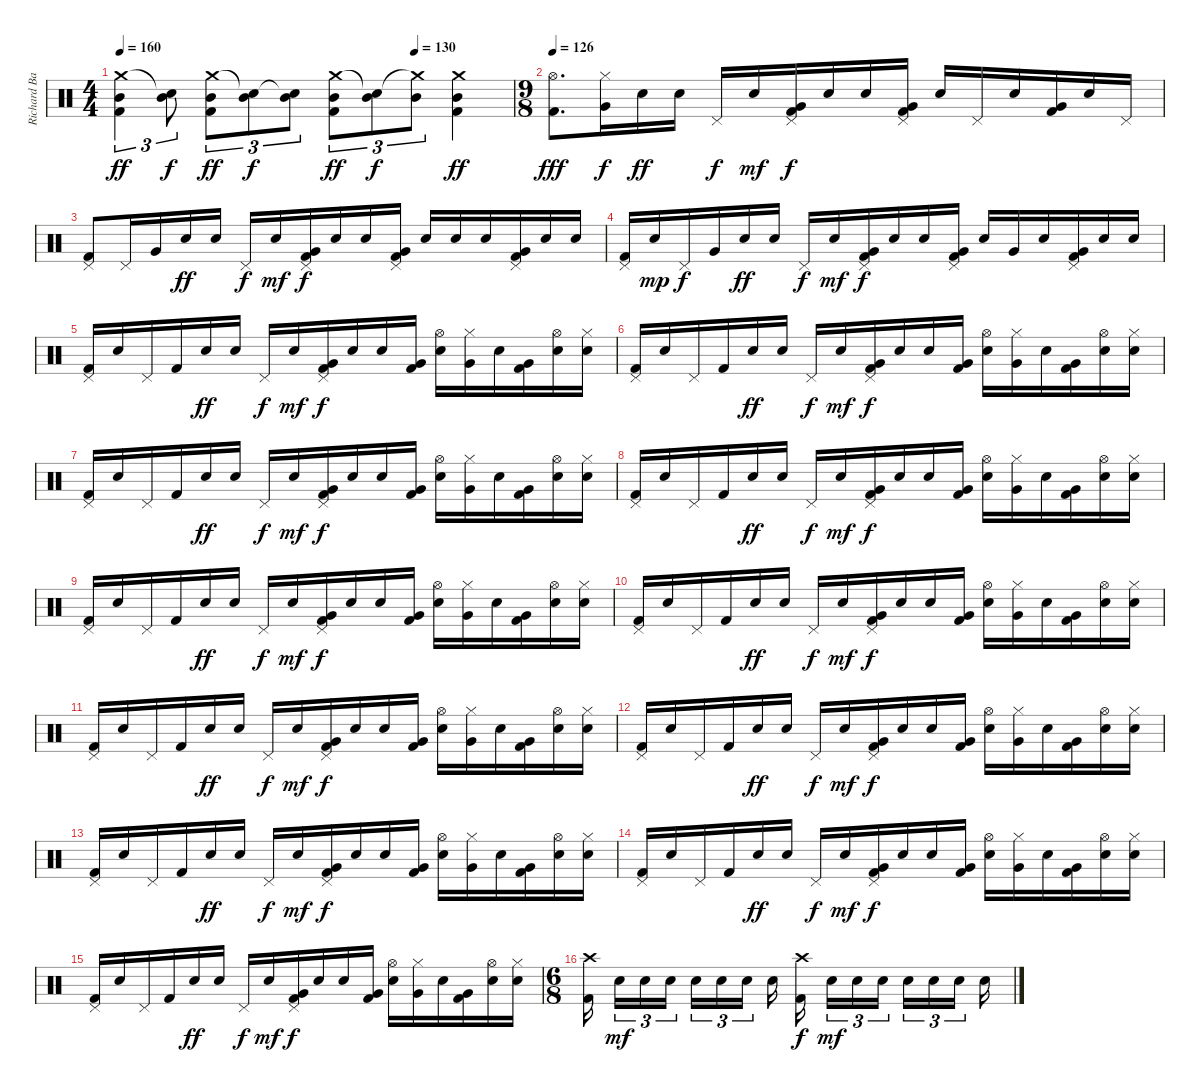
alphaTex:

\track ("Richard Bailey" "Richard Ba") {instrument percussion}
\staff {score}
\articulation defaults
\ts (4 4)
\tempo 160
\tempo (130 0.75)
\clef neutral
\ks c
("Crash medium (hit)" "Mid Tom (hit)" "Kick (hit) 2").4{tu (3 2) dy ff} ("Snare (hit)"{t} "Mid Tom (hit)").8{tu (3 2) dy f} ("Crash medium (hit)" "Mid Tom (hit)" "Kick (hit) 2").8{tu (3 2) dy ff} ("Snare (hit)"{t} "Mid Tom (hit)").8{tu (3 2) dy f} ("Snare (hit)"{t} "Mid Tom (hit)").8{tu (3 2)} ("Crash medium (hit)" "Mid Tom (hit)" "Kick (hit) 2").8{tu (3 2) dy ff} ("Snare (hit)"{t} "Mid Tom (hit)").8{tu (3 2) dy f} ("Crash medium (hit)"{t} "Mid Tom (hit)").8{tu (3 2)} ("Crash medium (hit)" "Mid Tom (hit)" "Kick (hit) 2").4{dy ff} |
\ts (9 8)
\tempo 126
("Hi-Hat (open)" "Kick (hit) 2").8{d dy fff} ("Hi-Hat (closed)" "Very Low Tom (hit)").16{dy f} "Electric Snare (hit)".16{dy ff} "Electric Snare (hit)".16 "Pedal Hi-Hat (hit)".16{dy f} "Snare (hit) 2".16{dy mf} ("Pedal Hi-Hat (hit)" "Very Low Tom (hit)" "Kick (hit) 2").16{dy f} "Snare (hit) 2".16 "Snare (hit) 2".16 ("Pedal Hi-Hat (hit)" "Very Low Tom (hit)" "Kick (hit) 2").16 "Snare (hit) 2".16 "Pedal Hi-Hat (hit)".16 "Snare (hit) 2".16 ("Very Low Tom (hit)" "Kick (hit) 2").16 "Electric Snare (hit)".16 "Pedal Hi-Hat (hit)".16 |
("Pedal Hi-Hat (hit)" "Kick (hit) 2").8 "Pedal Hi-Hat (hit)".16 "Very Low Tom (hit)".16 "Electric Snare (hit)".16{dy ff} "Electric Snare (hit)".16 "Pedal Hi-Hat (hit)".16{dy f} "Snare (hit) 2".16{dy mf} ("Pedal Hi-Hat (hit)" "Very Low Tom (hit)" "Kick (hit) 2").16{dy f} "Snare (hit) 2".16 "Snare (hit) 2".16 ("Pedal Hi-Hat (hit)" "Very Low Tom (hit)" "Kick (hit) 2").16 "Snare (hit) 2".16 "Snare (hit) 2".16 "Snare (hit) 2".16 ("Pedal Hi-Hat (hit)" "Very Low Tom (hit)" "Kick (hit) 2").16 "Electric Snare (hit)".16 "Electric Snare (hit)".16 |
("Pedal Hi-Hat (hit)" "Kick (hit) 2").16 "Electric Snare (hit)".16{dy mp} "Pedal Hi-Hat (hit)".16{dy f} "Very Low Tom (hit)".16 "Electric Snare (hit)".16{dy ff} "Electric Snare (hit)".16 "Pedal Hi-Hat (hit)".16{dy f} "Snare (hit) 2".16{dy mf} ("Pedal Hi-Hat (hit)" "Very Low Tom (hit)" "Kick (hit) 2").16{dy f} "Snare (hit) 2".16 "Snare (hit) 2".16 ("Pedal Hi-Hat (hit)" "Very Low Tom (hit)" "Kick (hit) 2").16 "Snare (hit) 2".16 "Very Low Tom (hit)".16 "Snare (hit) 2".16 ("Pedal Hi-Hat (hit)" "Very Low Tom (hit)" "Kick (hit) 2").16 "Electric Snare (hit)".16 "Electric Snare (hit)".16 |
("Pedal Hi-Hat (hit)" "Kick (hit) 2").16 "Electric Snare (hit)".16 "Pedal Hi-Hat (hit)".16 "Kick (hit) 2".16 "Electric Snare (hit)".16{dy ff} "Electric Snare (hit)".16 "Pedal Hi-Hat (hit)".16{dy f} "Snare (hit) 2".16{dy mf} ("Pedal Hi-Hat (hit)" "Very Low Tom (hit)" "Kick (hit) 2").16{dy f} "Snare (hit) 2".16 "Snare (hit) 2".16 ("Very Low Tom (hit)" "Kick (hit) 2").16 ("Hi-Hat (open)" "Snare (hit) 2").16 ("Hi-Hat (closed)" "Very Low Tom (hit)").16 "Snare (hit) 2".16 ("Very Low Tom (hit)" "Kick (hit) 2").16 ("Hi-Hat (open)" "Electric Snare (hit)").16 ("Hi-Hat (closed)" "Electric Snare (hit)").16 |
("Pedal Hi-Hat (hit)" "Kick (hit) 2").16 "Snare (hit) 2".16 "Pedal Hi-Hat (hit)".16 "Kick (hit) 2".16 "Electric Snare (hit)".16{dy ff} "Electric Snare (hit)".16 "Pedal Hi-Hat (hit)".16{dy f} "Snare (hit) 2".16{dy mf} ("Pedal Hi-Hat (hit)" "Very Low Tom (hit)" "Kick (hit) 2").16{dy f} "Snare (hit) 2".16 "Snare (hit) 2".16 ("Very Low Tom (hit)" "Kick (hit) 2").16 ("Hi-Hat (open)" "Snare (hit) 2").16 ("Hi-Hat (closed)" "Very Low Tom (hit)").16 "Snare (hit) 2".16 ("Very Low Tom (hit)" "Kick (hit) 2").16 ("Hi-Hat (open)" "Electric Snare (hit)").16 ("Hi-Hat (closed)" "Electric Snare (hit)").16 |
("Pedal Hi-Hat (hit)" "Kick (hit) 2").16 "Snare (hit) 2".16 "Pedal Hi-Hat (hit)".16 "Kick (hit) 2".16 "Electric Snare (hit)".16{dy ff} "Electric Snare (hit)".16 "Pedal Hi-Hat (hit)".16{dy f} "Snare (hit) 2".16{dy mf} ("Pedal Hi-Hat (hit)" "Very Low Tom (hit)" "Kick (hit) 2").16{dy f} "Snare (hit) 2".16 "Snare (hit) 2".16 ("Very Low Tom (hit)" "Kick (hit) 2").16 ("Hi-Hat (open)" "Snare (hit) 2").16 ("Hi-Hat (closed)" "Very Low Tom (hit)").16 "Snare (hit) 2".16 ("Very Low Tom (hit)" "Kick (hit) 2").16 ("Hi-Hat (open)" "Electric Snare (hit)").16 ("Hi-Hat (closed)" "Electric Snare (hit)").16 |
("Pedal Hi-Hat (hit)" "Kick (hit) 2").16 "Snare (hit) 2".16 "Pedal Hi-Hat (hit)".16 "Kick (hit) 2".16 "Electric Snare (hit)".16{dy ff} "Electric Snare (hit)".16 "Pedal Hi-Hat (hit)".16{dy f} "Snare (hit) 2".16{dy mf} ("Pedal Hi-Hat (hit)" "Very Low Tom (hit)" "Kick (hit) 2").16{dy f} "Snare (hit) 2".16 "Snare (hit) 2".16 ("Very Low Tom (hit)" "Kick (hit) 2").16 ("Hi-Hat (open)" "Snare (hit) 2").16 ("Hi-Hat (closed)" "Very Low Tom (hit)").16 "Snare (hit) 2".16 ("Very Low Tom (hit)" "Kick (hit) 2").16 ("Hi-Hat (open)" "Electric Snare (hit)").16 ("Hi-Hat (closed)" "Electric Snare (hit)").16 |
("Pedal Hi-Hat (hit)" "Kick (hit) 2").16 "Snare (hit) 2".16 "Pedal Hi-Hat (hit)".16 "Kick (hit) 2".16 "Electric Snare (hit)".16{dy ff} "Electric Snare (hit)".16 "Pedal Hi-Hat (hit)".16{dy f} "Snare (hit) 2".16{dy mf} ("Pedal Hi-Hat (hit)" "Very Low Tom (hit)" "Kick (hit) 2").16{dy f} "Snare (hit) 2".16 "Snare (hit) 2".16 ("Very Low Tom (hit)" "Kick (hit) 2").16 ("Hi-Hat (open)" "Snare (hit) 2").16 ("Hi-Hat (closed)" "Very Low Tom (hit)").16 "Snare (hit) 2".16 ("Very Low Tom (hit)" "Kick (hit) 2").16 ("Hi-Hat (open)" "Electric Snare (hit)").16 ("Hi-Hat (closed)" "Electric Snare (hit)").16 |
("Pedal Hi-Hat (hit)" "Kick (hit) 2").16 "Snare (hit) 2".16 "Pedal Hi-Hat (hit)".16 "Kick (hit) 2".16 "Electric Snare (hit)".16{dy ff} "Electric Snare (hit)".16 "Pedal Hi-Hat (hit)".16{dy f} "Snare (hit) 2".16{dy mf} ("Pedal Hi-Hat (hit)" "Very Low Tom (hit)" "Kick (hit) 2").16{dy f} "Snare (hit) 2".16 "Snare (hit) 2".16 ("Very Low Tom (hit)" "Kick (hit) 2").16 ("Hi-Hat (open)" "Snare (hit) 2").16 ("Hi-Hat (closed)" "Very Low Tom (hit)").16 "Snare (hit) 2".16 ("Very Low Tom (hit)" "Kick (hit) 2").16 ("Hi-Hat (open)" "Electric Snare (hit)").16 ("Hi-Hat (closed)" "Electric Snare (hit)").16 |
("Pedal Hi-Hat (hit)" "Kick (hit) 2").16 "Snare (hit) 2".16 "Pedal Hi-Hat (hit)".16 "Kick (hit) 2".16 "Electric Snare (hit)".16{dy ff} "Electric Snare (hit)".16 "Pedal Hi-Hat (hit)".16{dy f} "Snare (hit) 2".16{dy mf} ("Pedal Hi-Hat (hit)" "Very Low Tom (hit)" "Kick (hit) 2").16{dy f} "Snare (hit) 2".16 "Snare (hit) 2".16 ("Very Low Tom (hit)" "Kick (hit) 2").16 ("Hi-Hat (open)" "Snare (hit) 2").16 ("Hi-Hat (closed)" "Very Low Tom (hit)").16 "Snare (hit) 2".16 ("Very Low Tom (hit)" "Kick (hit) 2").16 ("Hi-Hat (open)" "Electric Snare (hit)").16 ("Hi-Hat (closed)" "Electric Snare (hit)").16 |
("Pedal Hi-Hat (hit)" "Kick (hit) 2").16 "Snare (hit) 2".16 "Pedal Hi-Hat (hit)".16 "Kick (hit) 2".16 "Electric Snare (hit)".16{dy ff} "Electric Snare (hit)".16 "Pedal Hi-Hat (hit)".16{dy f} "Snare (hit) 2".16{dy mf} ("Pedal Hi-Hat (hit)" "Very Low Tom (hit)" "Kick (hit) 2").16{dy f} "Snare (hit) 2".16 "Snare (hit) 2".16 ("Very Low Tom (hit)" "Kick (hit) 2").16 ("Hi-Hat (open)" "Snare (hit) 2").16 ("Hi-Hat (closed)" "Very Low Tom (hit)").16 "Snare (hit) 2".16 ("Very Low Tom (hit)" "Kick (hit) 2").16 ("Hi-Hat (open)" "Electric Snare (hit)").16 ("Hi-Hat (closed)" "Electric Snare (hit)").16 |
("Pedal Hi-Hat (hit)" "Kick (hit) 2").16 "Snare (hit) 2".16 "Pedal Hi-Hat (hit)".16 "Kick (hit) 2".16 "Electric Snare (hit)".16{dy ff} "Electric Snare (hit)".16 "Pedal Hi-Hat (hit)".16{dy f} "Snare (hit) 2".16{dy mf} ("Pedal Hi-Hat (hit)" "Very Low Tom (hit)" "Kick (hit) 2").16{dy f} "Snare (hit) 2".16 "Snare (hit) 2".16 ("Very Low Tom (hit)" "Kick (hit) 2").16 ("Hi-Hat (open)" "Snare (hit) 2").16 ("Hi-Hat (closed)" "Very Low Tom (hit)").16 "Snare (hit) 2".16 ("Very Low Tom (hit)" "Kick (hit) 2").16 ("Hi-Hat (open)" "Electric Snare (hit)").16 ("Hi-Hat (closed)" "Electric Snare (hit)").16 |
("Pedal Hi-Hat (hit)" "Kick (hit) 2").16 "Snare (hit) 2".16 "Pedal Hi-Hat (hit)".16 "Kick (hit) 2".16 "Electric Snare (hit)".16{dy ff} "Electric Snare (hit)".16 "Pedal Hi-Hat (hit)".16{dy f} "Snare (hit) 2".16{dy mf} ("Pedal Hi-Hat (hit)" "Very Low Tom (hit)" "Kick (hit) 2").16{dy f} "Snare (hit) 2".16 "Snare (hit) 2".16 ("Very Low Tom (hit)" "Kick (hit) 2").16 ("Hi-Hat (open)" "Snare (hit) 2").16 ("Hi-Hat (closed)" "Very Low Tom (hit)").16 "Snare (hit) 2".16 ("Very Low Tom (hit)" "Kick (hit) 2").16 ("Hi-Hat (open)" "Electric Snare (hit)").16 ("Hi-Hat (closed)" "Electric Snare (hit)").16 |
("Pedal Hi-Hat (hit)" "Kick (hit) 2").16 "Snare (hit) 2".16 "Pedal Hi-Hat (hit)".16 "Kick (hit) 2".16 "Electric Snare (hit)".16{dy ff} "Electric Snare (hit)".16 "Pedal Hi-Hat (hit)".16{dy f} "Snare (hit) 2".16{dy mf} ("Pedal Hi-Hat (hit)" "Very Low Tom (hit)" "Kick (hit) 2").16{dy f} "Snare (hit) 2".16 "Snare (hit) 2".16 ("Very Low Tom (hit)" "Kick (hit) 2").16 ("Hi-Hat (open)" "Snare (hit) 2").16 ("Hi-Hat (closed)" "Very Low Tom (hit)").16 "Snare (hit) 2".16 ("Very Low Tom (hit)" "Kick (hit) 2").16 ("Hi-Hat (open)" "Electric Snare (hit)").16 ("Hi-Hat (closed)" "Electric Snare (hit)").16 |
\ts (6 8)
("Crash high (hit)" "Kick (hit) 2").16 "Snare (hit) 2".16{tu (3 2) dy mf} "Snare (hit) 2".16{tu (3 2)} "Snare (hit) 2".16{tu (3 2)} "Snare (hit) 2".16{tu (3 2)} "Snare (hit) 2".16{tu (3 2)} "Snare (hit) 2".16{tu (3 2)} "Snare (hit) 2".16 ("Crash high (hit)" "Kick (hit) 2").16{dy f} "Snare (hit) 2".16{tu (3 2) dy mf} "Snare (hit) 2".16{tu (3 2)} "Snare (hit) 2".16{tu (3 2)} "Snare (hit) 2".16{tu (3 2)} "Snare (hit) 2".16{tu (3 2)} "Snare (hit) 2".16{tu (3 2)} "Snare (hit) 2".16
